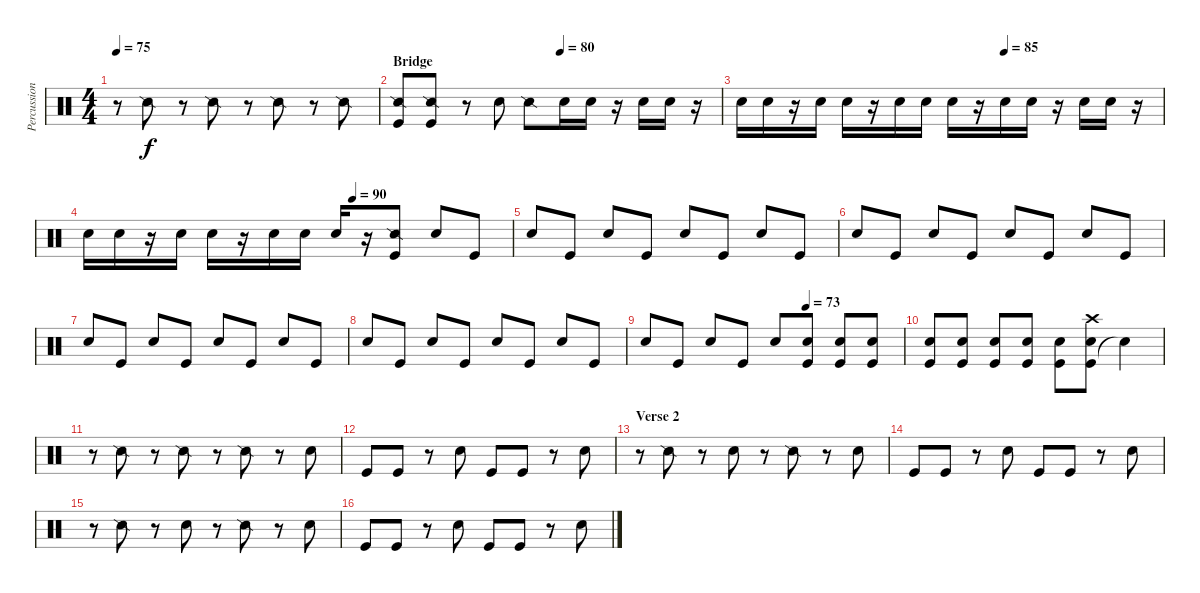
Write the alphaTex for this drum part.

\track ("Percussion" "Percussion") {instrument percussion}
\staff {score}
\articulation defaults
\ts (4 4)
\tempo 75
\clef neutral
\ks c
r.8{dy f} "Snare (side stick) 2".8 r.8 "Snare (side stick) 2".8 r.8 "Snare (side stick) 2".8 r.8 "Snare (side stick) 2".8 |
\section ("" "Bridge")
\tempo (80 0.5)
("Snare (side stick) 2" "Kick (hit)").8 ("Snare (side stick) 2" "Kick (hit)").8 r.8 "Snare (hit) 2".8 "Snare (side stick) 2".8 "Snare (hit) 2".16 "Snare (hit) 2".16 r.16 "Snare (hit) 2".16 "Snare (hit) 2".16 r.16 |
\tempo (85 0.625)
"Snare (hit) 2".16 "Snare (hit) 2".16 r.16 "Snare (hit) 2".16 "Snare (hit) 2".16 r.16 "Snare (hit) 2".16 "Snare (hit) 2".16 "Snare (hit) 2".16 r.16 "Snare (hit) 2".16 "Snare (hit) 2".16 r.16 "Snare (hit) 2".16 "Snare (hit) 2".16 r.16 |
\tempo (90 0.625)
"Snare (hit) 2".16 "Snare (hit) 2".16 r.16 "Snare (hit) 2".16 "Snare (hit) 2".16 r.16 "Snare (hit) 2".16 "Snare (hit) 2".16 "Snare (hit) 2".16 r.16 ("Snare (side stick) 2" "Kick (hit)").8 "Snare (hit) 2".8 "Kick (hit)".8 |
"Snare (hit) 2".8 "Kick (hit)".8 "Snare (hit) 2".8 "Kick (hit)".8 "Snare (hit) 2".8 "Kick (hit)".8 "Snare (hit) 2".8 "Kick (hit)".8 |
"Snare (hit) 2".8 "Kick (hit)".8 "Snare (hit) 2".8 "Kick (hit)".8 "Snare (hit) 2".8 "Kick (hit)".8 "Snare (hit) 2".8 "Kick (hit)".8 |
"Snare (hit) 2".8 "Kick (hit)".8 "Snare (hit) 2".8 "Kick (hit)".8 "Snare (hit) 2".8 "Kick (hit)".8 "Snare (hit) 2".8 "Kick (hit)".8 |
"Snare (hit) 2".8 "Kick (hit)".8 "Snare (hit) 2".8 "Kick (hit)".8 "Snare (hit) 2".8 "Kick (hit)".8 "Snare (hit) 2".8 "Kick (hit)".8 |
\tempo (73 0.625)
"Snare (hit) 2".8 "Kick (hit)".8 "Snare (hit) 2".8 "Kick (hit)".8 "Snare (hit) 2".8 ("Kick (hit)" "Snare (hit) 2").8 ("Kick (hit)" "Snare (hit) 2").8 ("Kick (hit)" "Snare (hit) 2").8 |
("Kick (hit)" "Snare (hit) 2").8 ("Kick (hit)" "Snare (hit) 2").8 ("Kick (hit)" "Snare (hit) 2").8 ("Kick (hit)" "Snare (hit) 2").8 ("Kick (hit)" "Snare (hit) 2").8 ("Kick (hit)" "Snare (hit) 2" "Crash high (hit)").8 "Snare (hit)"{t}.4 |
r.8 "Snare (side stick) 2".8 r.8 "Snare (side stick) 2".8 r.8 "Snare (side stick) 2".8 r.8 "Snare (hit) 2".8 |
"Kick (hit)".8 "Kick (hit)".8 r.8 "Snare (hit) 2".8 "Kick (hit)".8 "Kick (hit)".8 r.8 "Snare (hit) 2".8 |
\section ("" "Verse 2")
r.8 "Snare (side stick) 2".8 r.8 "Snare (hit) 2".8 r.8 "Snare (side stick) 2".8 r.8 "Snare (hit) 2".8 |
"Kick (hit)".8 "Kick (hit)".8 r.8 "Snare (hit) 2".8 "Kick (hit)".8 "Kick (hit)".8 r.8 "Snare (hit) 2".8 |
r.8 "Snare (side stick) 2".8 r.8 "Snare (hit) 2".8 r.8 "Snare (side stick) 2".8 r.8 "Snare (hit) 2".8 |
"Kick (hit)".8 "Kick (hit)".8 r.8 "Snare (hit) 2".8 "Kick (hit)".8 "Kick (hit)".8 r.8 "Snare (hit) 2".8
